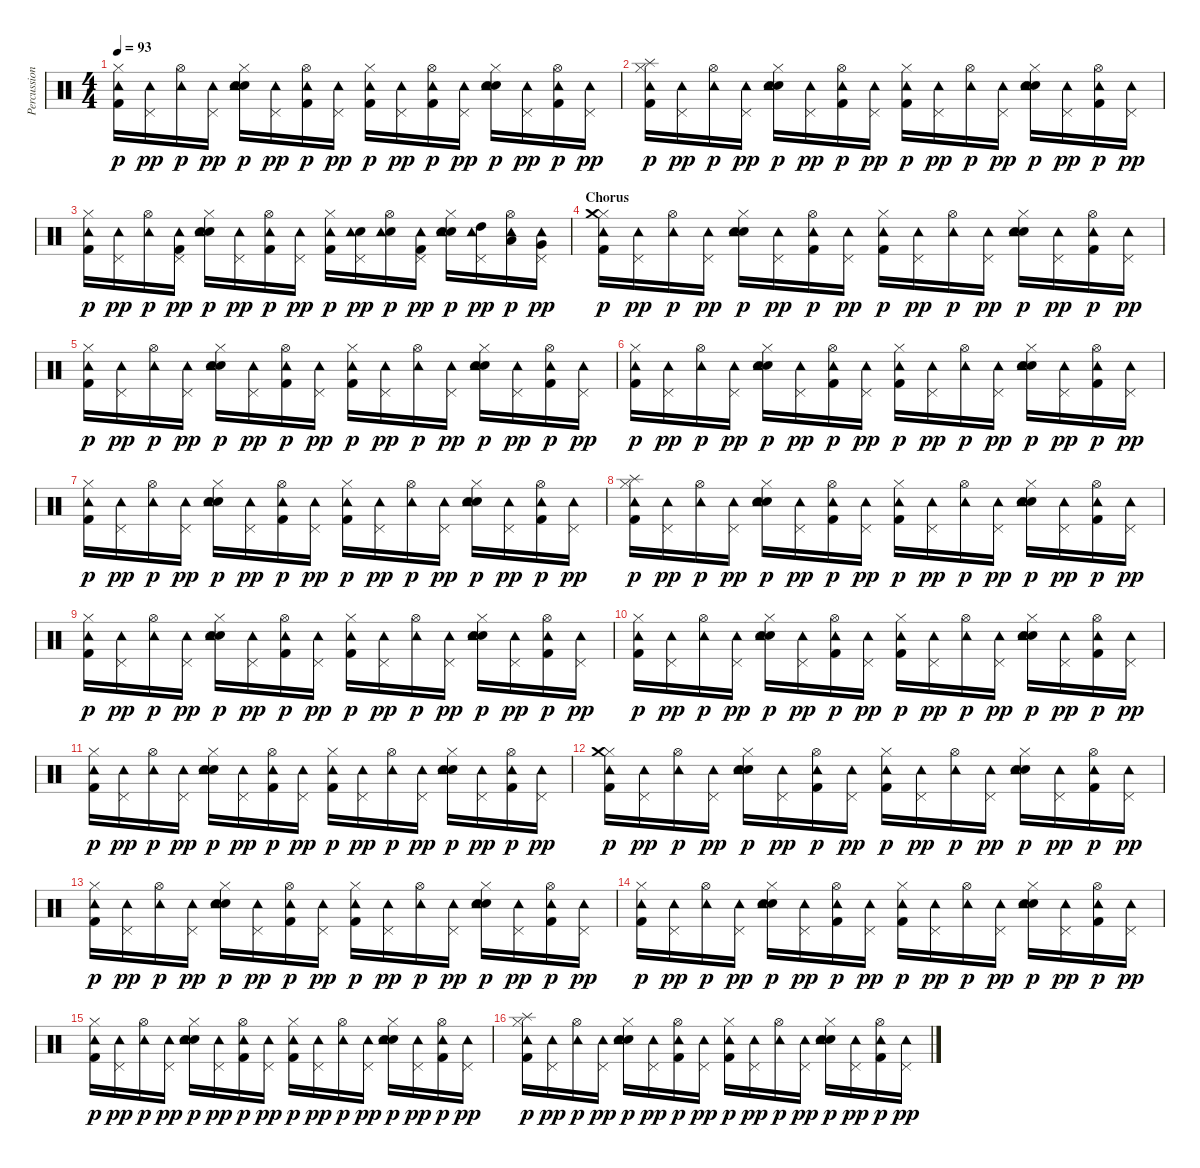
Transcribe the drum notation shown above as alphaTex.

\track ("Percussions" "Percussion") {instrument percussion}
\staff {score}
\articulation defaults
\ts (4 4)
\tempo 93
\clef neutral
\ks c
("Hi-Hat (closed)" "Kick (hit) 2" "Tambourine (hit)").16{dy p} ("Pedal Hi-Hat (hit)" "Tambourine (hit)").16{dy pp} ("Hi-Hat (open)" "Tambourine (hit)").16{dy p} ("Pedal Hi-Hat (hit)" "Tambourine (hit)").16{dy pp} ("Hi-Hat (closed)" "Electric Snare (hit)" "Hand Clap (hit)" "Tambourine (hit)").16{dy p} ("Pedal Hi-Hat (hit)" "Tambourine (hit)").16{dy pp} ("Hi-Hat (open)" "Kick (hit) 2" "Tambourine (hit)").16{dy p} ("Pedal Hi-Hat (hit)" "Tambourine (hit)").16{dy pp} ("Hi-Hat (closed)" "Kick (hit) 2" "Tambourine (hit)").16{dy p} ("Pedal Hi-Hat (hit)" "Tambourine (hit)").16{dy pp} ("Hi-Hat (open)" "Kick (hit) 2" "Tambourine (hit)").16{dy p} ("Pedal Hi-Hat (hit)" "Tambourine (hit)").16{dy pp} ("Hi-Hat (closed)" "Electric Snare (hit)" "Hand Clap (hit)" "Tambourine (hit)").16{dy p} ("Pedal Hi-Hat (hit)" "Tambourine (hit)").16{dy pp} ("Hi-Hat (open)" "Kick (hit) 2" "Tambourine (hit)").16{dy p} ("Pedal Hi-Hat (hit)" "Tambourine (hit)").16{dy pp} |
("Hi-Hat (closed)" "Splash (hit)" "Kick (hit) 2" "Tambourine (hit)").16{dy p} ("Pedal Hi-Hat (hit)" "Tambourine (hit)").16{dy pp} ("Hi-Hat (open)" "Tambourine (hit)").16{dy p} ("Pedal Hi-Hat (hit)" "Tambourine (hit)").16{dy pp} ("Hi-Hat (closed)" "Electric Snare (hit)" "Hand Clap (hit)" "Tambourine (hit)").16{dy p} ("Pedal Hi-Hat (hit)" "Tambourine (hit)").16{dy pp} ("Hi-Hat (open)" "Kick (hit) 2" "Tambourine (hit)").16{dy p} ("Pedal Hi-Hat (hit)" "Tambourine (hit)").16{dy pp} ("Hi-Hat (closed)" "Kick (hit) 2" "Tambourine (hit)").16{dy p} ("Pedal Hi-Hat (hit)" "Tambourine (hit)").16{dy pp} ("Hi-Hat (open)" "Tambourine (hit)").16{dy p} ("Pedal Hi-Hat (hit)" "Tambourine (hit)").16{dy pp} ("Hi-Hat (closed)" "Electric Snare (hit)" "Hand Clap (hit)" "Tambourine (hit)").16{dy p} ("Pedal Hi-Hat (hit)" "Tambourine (hit)").16{dy pp} ("Hi-Hat (open)" "Kick (hit) 2" "Tambourine (hit)").16{dy p} ("Pedal Hi-Hat (hit)" "Tambourine (hit)").16{dy pp} |
("Hi-Hat (closed)" "Kick (hit) 2" "Tambourine (hit)").16{dy p} ("Pedal Hi-Hat (hit)" "Tambourine (hit)").16{dy pp} ("Hi-Hat (open)" "Tambourine (hit)").16{dy p} ("Pedal Hi-Hat (hit)" "Kick (hit) 2" "Tambourine (hit)").16{dy pp} ("Hi-Hat (closed)" "Electric Snare (hit)" "Hand Clap (hit)" "Tambourine (hit)").16{dy p} ("Pedal Hi-Hat (hit)" "Tambourine (hit)").16{dy pp} ("Hi-Hat (open)" "Kick (hit) 2" "Tambourine (hit)").16{dy p} ("Pedal Hi-Hat (hit)" "Tambourine (hit)").16{dy pp} ("Hi-Hat (closed)" "Kick (hit) 2" "Tambourine (hit)").16{dy p} ("Pedal Hi-Hat (hit)" "Electric Snare (hit)" "Tambourine (hit)").16{dy pp} ("Hi-Hat (open)" "Electric Snare (hit)" "Tambourine (hit)").16{dy p} ("Pedal Hi-Hat (hit)" "Kick (hit) 2" "Tambourine (hit)").16{dy pp} ("Hi-Hat (closed)" "Electric Snare (hit)" "Hand Clap (hit)" "Tambourine (hit)").16{dy p} ("Pedal Hi-Hat (hit)" "High Tom (hit)" "Tambourine (hit)").16{dy pp} ("Hi-Hat (open)" "Low Tom (hit)" "Tambourine (hit)").16{dy p} ("Pedal Hi-Hat (hit)" "Very Low Tom (hit)" "Tambourine (hit)").16{dy pp} |
\section ("" "Chorus")
("Hi-Hat (closed)" "Crash medium (hit)" "Kick (hit) 2" "Tambourine (hit)").16{dy p} ("Pedal Hi-Hat (hit)" "Tambourine (hit)").16{dy pp} ("Hi-Hat (open)" "Tambourine (hit)").16{dy p} ("Pedal Hi-Hat (hit)" "Tambourine (hit)").16{dy pp} ("Hi-Hat (closed)" "Electric Snare (hit)" "Hand Clap (hit)" "Tambourine (hit)").16{dy p} ("Pedal Hi-Hat (hit)" "Tambourine (hit)").16{dy pp} ("Hi-Hat (open)" "Kick (hit) 2" "Tambourine (hit)").16{dy p} ("Pedal Hi-Hat (hit)" "Tambourine (hit)").16{dy pp} ("Hi-Hat (closed)" "Kick (hit) 2" "Tambourine (hit)").16{dy p} ("Pedal Hi-Hat (hit)" "Tambourine (hit)").16{dy pp} ("Hi-Hat (open)" "Tambourine (hit)").16{dy p} ("Pedal Hi-Hat (hit)" "Tambourine (hit)").16{dy pp} ("Hi-Hat (closed)" "Electric Snare (hit)" "Hand Clap (hit)" "Tambourine (hit)").16{dy p} ("Pedal Hi-Hat (hit)" "Tambourine (hit)").16{dy pp} ("Hi-Hat (open)" "Kick (hit) 2" "Tambourine (hit)").16{dy p} ("Pedal Hi-Hat (hit)" "Tambourine (hit)").16{dy pp} |
("Hi-Hat (closed)" "Kick (hit) 2" "Tambourine (hit)").16{dy p} ("Pedal Hi-Hat (hit)" "Tambourine (hit)").16{dy pp} ("Hi-Hat (open)" "Tambourine (hit)").16{dy p} ("Pedal Hi-Hat (hit)" "Tambourine (hit)").16{dy pp} ("Hi-Hat (closed)" "Electric Snare (hit)" "Hand Clap (hit)" "Tambourine (hit)").16{dy p} ("Pedal Hi-Hat (hit)" "Tambourine (hit)").16{dy pp} ("Hi-Hat (open)" "Kick (hit) 2" "Tambourine (hit)").16{dy p} ("Pedal Hi-Hat (hit)" "Tambourine (hit)").16{dy pp} ("Hi-Hat (closed)" "Kick (hit) 2" "Tambourine (hit)").16{dy p} ("Pedal Hi-Hat (hit)" "Tambourine (hit)").16{dy pp} ("Hi-Hat (open)" "Tambourine (hit)").16{dy p} ("Pedal Hi-Hat (hit)" "Tambourine (hit)").16{dy pp} ("Hi-Hat (closed)" "Electric Snare (hit)" "Hand Clap (hit)" "Tambourine (hit)").16{dy p} ("Pedal Hi-Hat (hit)" "Tambourine (hit)").16{dy pp} ("Hi-Hat (open)" "Kick (hit) 2" "Tambourine (hit)").16{dy p} ("Pedal Hi-Hat (hit)" "Tambourine (hit)").16{dy pp} |
("Hi-Hat (closed)" "Kick (hit) 2" "Tambourine (hit)").16{dy p} ("Pedal Hi-Hat (hit)" "Tambourine (hit)").16{dy pp} ("Hi-Hat (open)" "Tambourine (hit)").16{dy p} ("Pedal Hi-Hat (hit)" "Tambourine (hit)").16{dy pp} ("Hi-Hat (closed)" "Electric Snare (hit)" "Hand Clap (hit)" "Tambourine (hit)").16{dy p} ("Pedal Hi-Hat (hit)" "Tambourine (hit)").16{dy pp} ("Hi-Hat (open)" "Kick (hit) 2" "Tambourine (hit)").16{dy p} ("Pedal Hi-Hat (hit)" "Tambourine (hit)").16{dy pp} ("Hi-Hat (closed)" "Kick (hit) 2" "Tambourine (hit)").16{dy p} ("Pedal Hi-Hat (hit)" "Tambourine (hit)").16{dy pp} ("Hi-Hat (open)" "Tambourine (hit)").16{dy p} ("Pedal Hi-Hat (hit)" "Tambourine (hit)").16{dy pp} ("Hi-Hat (closed)" "Electric Snare (hit)" "Hand Clap (hit)" "Tambourine (hit)").16{dy p} ("Pedal Hi-Hat (hit)" "Tambourine (hit)").16{dy pp} ("Hi-Hat (open)" "Kick (hit) 2" "Tambourine (hit)").16{dy p} ("Pedal Hi-Hat (hit)" "Tambourine (hit)").16{dy pp} |
("Hi-Hat (closed)" "Kick (hit) 2" "Tambourine (hit)").16{dy p} ("Pedal Hi-Hat (hit)" "Tambourine (hit)").16{dy pp} ("Hi-Hat (open)" "Tambourine (hit)").16{dy p} ("Pedal Hi-Hat (hit)" "Tambourine (hit)").16{dy pp} ("Hi-Hat (closed)" "Electric Snare (hit)" "Hand Clap (hit)" "Tambourine (hit)").16{dy p} ("Pedal Hi-Hat (hit)" "Tambourine (hit)").16{dy pp} ("Hi-Hat (open)" "Kick (hit) 2" "Tambourine (hit)").16{dy p} ("Pedal Hi-Hat (hit)" "Tambourine (hit)").16{dy pp} ("Hi-Hat (closed)" "Kick (hit) 2" "Tambourine (hit)").16{dy p} ("Pedal Hi-Hat (hit)" "Tambourine (hit)").16{dy pp} ("Hi-Hat (open)" "Tambourine (hit)").16{dy p} ("Pedal Hi-Hat (hit)" "Tambourine (hit)").16{dy pp} ("Hi-Hat (closed)" "Electric Snare (hit)" "Hand Clap (hit)" "Tambourine (hit)").16{dy p} ("Pedal Hi-Hat (hit)" "Tambourine (hit)").16{dy pp} ("Hi-Hat (open)" "Kick (hit) 2" "Tambourine (hit)").16{dy p} ("Pedal Hi-Hat (hit)" "Tambourine (hit)").16{dy pp} |
("Hi-Hat (closed)" "Splash (hit)" "Kick (hit) 2" "Tambourine (hit)").16{dy p} ("Pedal Hi-Hat (hit)" "Tambourine (hit)").16{dy pp} ("Hi-Hat (open)" "Tambourine (hit)").16{dy p} ("Pedal Hi-Hat (hit)" "Tambourine (hit)").16{dy pp} ("Hi-Hat (closed)" "Electric Snare (hit)" "Hand Clap (hit)" "Tambourine (hit)").16{dy p} ("Pedal Hi-Hat (hit)" "Tambourine (hit)").16{dy pp} ("Hi-Hat (open)" "Kick (hit) 2" "Tambourine (hit)").16{dy p} ("Pedal Hi-Hat (hit)" "Tambourine (hit)").16{dy pp} ("Hi-Hat (closed)" "Kick (hit) 2" "Tambourine (hit)").16{dy p} ("Pedal Hi-Hat (hit)" "Tambourine (hit)").16{dy pp} ("Hi-Hat (open)" "Tambourine (hit)").16{dy p} ("Pedal Hi-Hat (hit)" "Tambourine (hit)").16{dy pp} ("Hi-Hat (closed)" "Electric Snare (hit)" "Hand Clap (hit)" "Tambourine (hit)").16{dy p} ("Pedal Hi-Hat (hit)" "Tambourine (hit)").16{dy pp} ("Hi-Hat (open)" "Kick (hit) 2" "Tambourine (hit)").16{dy p} ("Pedal Hi-Hat (hit)" "Tambourine (hit)").16{dy pp} |
("Hi-Hat (closed)" "Kick (hit) 2" "Tambourine (hit)").16{dy p} ("Pedal Hi-Hat (hit)" "Tambourine (hit)").16{dy pp} ("Hi-Hat (open)" "Tambourine (hit)").16{dy p} ("Pedal Hi-Hat (hit)" "Tambourine (hit)").16{dy pp} ("Hi-Hat (closed)" "Electric Snare (hit)" "Hand Clap (hit)" "Tambourine (hit)").16{dy p} ("Pedal Hi-Hat (hit)" "Tambourine (hit)").16{dy pp} ("Hi-Hat (open)" "Kick (hit) 2" "Tambourine (hit)").16{dy p} ("Pedal Hi-Hat (hit)" "Tambourine (hit)").16{dy pp} ("Hi-Hat (closed)" "Kick (hit) 2" "Tambourine (hit)").16{dy p} ("Pedal Hi-Hat (hit)" "Tambourine (hit)").16{dy pp} ("Hi-Hat (open)" "Tambourine (hit)").16{dy p} ("Pedal Hi-Hat (hit)" "Tambourine (hit)").16{dy pp} ("Hi-Hat (closed)" "Electric Snare (hit)" "Hand Clap (hit)" "Tambourine (hit)").16{dy p} ("Pedal Hi-Hat (hit)" "Tambourine (hit)").16{dy pp} ("Hi-Hat (open)" "Kick (hit) 2" "Tambourine (hit)").16{dy p} ("Pedal Hi-Hat (hit)" "Tambourine (hit)").16{dy pp} |
("Hi-Hat (closed)" "Kick (hit) 2" "Tambourine (hit)").16{dy p} ("Pedal Hi-Hat (hit)" "Tambourine (hit)").16{dy pp} ("Hi-Hat (open)" "Tambourine (hit)").16{dy p} ("Pedal Hi-Hat (hit)" "Tambourine (hit)").16{dy pp} ("Hi-Hat (closed)" "Electric Snare (hit)" "Hand Clap (hit)" "Tambourine (hit)").16{dy p} ("Pedal Hi-Hat (hit)" "Tambourine (hit)").16{dy pp} ("Hi-Hat (open)" "Kick (hit) 2" "Tambourine (hit)").16{dy p} ("Pedal Hi-Hat (hit)" "Tambourine (hit)").16{dy pp} ("Hi-Hat (closed)" "Kick (hit) 2" "Tambourine (hit)").16{dy p} ("Pedal Hi-Hat (hit)" "Tambourine (hit)").16{dy pp} ("Hi-Hat (open)" "Tambourine (hit)").16{dy p} ("Pedal Hi-Hat (hit)" "Tambourine (hit)").16{dy pp} ("Hi-Hat (closed)" "Electric Snare (hit)" "Hand Clap (hit)" "Tambourine (hit)").16{dy p} ("Pedal Hi-Hat (hit)" "Tambourine (hit)").16{dy pp} ("Hi-Hat (open)" "Kick (hit) 2" "Tambourine (hit)").16{dy p} ("Pedal Hi-Hat (hit)" "Tambourine (hit)").16{dy pp} |
("Hi-Hat (closed)" "Kick (hit) 2" "Tambourine (hit)").16{dy p} ("Pedal Hi-Hat (hit)" "Tambourine (hit)").16{dy pp} ("Hi-Hat (open)" "Tambourine (hit)").16{dy p} ("Pedal Hi-Hat (hit)" "Tambourine (hit)").16{dy pp} ("Hi-Hat (closed)" "Electric Snare (hit)" "Hand Clap (hit)" "Tambourine (hit)").16{dy p} ("Pedal Hi-Hat (hit)" "Tambourine (hit)").16{dy pp} ("Hi-Hat (open)" "Kick (hit) 2" "Tambourine (hit)").16{dy p} ("Pedal Hi-Hat (hit)" "Tambourine (hit)").16{dy pp} ("Hi-Hat (closed)" "Kick (hit) 2" "Tambourine (hit)").16{dy p} ("Pedal Hi-Hat (hit)" "Tambourine (hit)").16{dy pp} ("Hi-Hat (open)" "Tambourine (hit)").16{dy p} ("Pedal Hi-Hat (hit)" "Tambourine (hit)").16{dy pp} ("Hi-Hat (closed)" "Electric Snare (hit)" "Hand Clap (hit)" "Tambourine (hit)").16{dy p} ("Pedal Hi-Hat (hit)" "Tambourine (hit)").16{dy pp} ("Hi-Hat (open)" "Kick (hit) 2" "Tambourine (hit)").16{dy p} ("Pedal Hi-Hat (hit)" "Tambourine (hit)").16{dy pp} |
("Hi-Hat (closed)" "Crash medium (hit)" "Kick (hit) 2" "Tambourine (hit)").16{dy p} ("Pedal Hi-Hat (hit)" "Tambourine (hit)").16{dy pp} ("Hi-Hat (open)" "Tambourine (hit)").16{dy p} ("Pedal Hi-Hat (hit)" "Tambourine (hit)").16{dy pp} ("Hi-Hat (closed)" "Electric Snare (hit)" "Hand Clap (hit)" "Tambourine (hit)").16{dy p} ("Pedal Hi-Hat (hit)" "Tambourine (hit)").16{dy pp} ("Hi-Hat (open)" "Kick (hit) 2" "Tambourine (hit)").16{dy p} ("Pedal Hi-Hat (hit)" "Tambourine (hit)").16{dy pp} ("Hi-Hat (closed)" "Kick (hit) 2" "Tambourine (hit)").16{dy p} ("Pedal Hi-Hat (hit)" "Tambourine (hit)").16{dy pp} ("Hi-Hat (open)" "Tambourine (hit)").16{dy p} ("Pedal Hi-Hat (hit)" "Tambourine (hit)").16{dy pp} ("Hi-Hat (closed)" "Electric Snare (hit)" "Hand Clap (hit)" "Tambourine (hit)").16{dy p} ("Pedal Hi-Hat (hit)" "Tambourine (hit)").16{dy pp} ("Hi-Hat (open)" "Kick (hit) 2" "Tambourine (hit)").16{dy p} ("Pedal Hi-Hat (hit)" "Tambourine (hit)").16{dy pp} |
("Hi-Hat (closed)" "Kick (hit) 2" "Tambourine (hit)").16{dy p} ("Pedal Hi-Hat (hit)" "Tambourine (hit)").16{dy pp} ("Hi-Hat (open)" "Tambourine (hit)").16{dy p} ("Pedal Hi-Hat (hit)" "Tambourine (hit)").16{dy pp} ("Hi-Hat (closed)" "Electric Snare (hit)" "Hand Clap (hit)" "Tambourine (hit)").16{dy p} ("Pedal Hi-Hat (hit)" "Tambourine (hit)").16{dy pp} ("Hi-Hat (open)" "Kick (hit) 2" "Tambourine (hit)").16{dy p} ("Pedal Hi-Hat (hit)" "Tambourine (hit)").16{dy pp} ("Hi-Hat (closed)" "Kick (hit) 2" "Tambourine (hit)").16{dy p} ("Pedal Hi-Hat (hit)" "Tambourine (hit)").16{dy pp} ("Hi-Hat (open)" "Tambourine (hit)").16{dy p} ("Pedal Hi-Hat (hit)" "Tambourine (hit)").16{dy pp} ("Hi-Hat (closed)" "Electric Snare (hit)" "Hand Clap (hit)" "Tambourine (hit)").16{dy p} ("Pedal Hi-Hat (hit)" "Tambourine (hit)").16{dy pp} ("Hi-Hat (open)" "Kick (hit) 2" "Tambourine (hit)").16{dy p} ("Pedal Hi-Hat (hit)" "Tambourine (hit)").16{dy pp} |
("Hi-Hat (closed)" "Kick (hit) 2" "Tambourine (hit)").16{dy p} ("Pedal Hi-Hat (hit)" "Tambourine (hit)").16{dy pp} ("Hi-Hat (open)" "Tambourine (hit)").16{dy p} ("Pedal Hi-Hat (hit)" "Tambourine (hit)").16{dy pp} ("Hi-Hat (closed)" "Electric Snare (hit)" "Hand Clap (hit)" "Tambourine (hit)").16{dy p} ("Pedal Hi-Hat (hit)" "Tambourine (hit)").16{dy pp} ("Hi-Hat (open)" "Kick (hit) 2" "Tambourine (hit)").16{dy p} ("Pedal Hi-Hat (hit)" "Tambourine (hit)").16{dy pp} ("Hi-Hat (closed)" "Kick (hit) 2" "Tambourine (hit)").16{dy p} ("Pedal Hi-Hat (hit)" "Tambourine (hit)").16{dy pp} ("Hi-Hat (open)" "Tambourine (hit)").16{dy p} ("Pedal Hi-Hat (hit)" "Tambourine (hit)").16{dy pp} ("Hi-Hat (closed)" "Electric Snare (hit)" "Hand Clap (hit)" "Tambourine (hit)").16{dy p} ("Pedal Hi-Hat (hit)" "Tambourine (hit)").16{dy pp} ("Hi-Hat (open)" "Kick (hit) 2" "Tambourine (hit)").16{dy p} ("Pedal Hi-Hat (hit)" "Tambourine (hit)").16{dy pp} |
("Hi-Hat (closed)" "Kick (hit) 2" "Tambourine (hit)").16{dy p} ("Pedal Hi-Hat (hit)" "Tambourine (hit)").16{dy pp} ("Hi-Hat (open)" "Tambourine (hit)").16{dy p} ("Pedal Hi-Hat (hit)" "Tambourine (hit)").16{dy pp} ("Hi-Hat (closed)" "Electric Snare (hit)" "Hand Clap (hit)" "Tambourine (hit)").16{dy p} ("Pedal Hi-Hat (hit)" "Tambourine (hit)").16{dy pp} ("Hi-Hat (open)" "Kick (hit) 2" "Tambourine (hit)").16{dy p} ("Pedal Hi-Hat (hit)" "Tambourine (hit)").16{dy pp} ("Hi-Hat (closed)" "Kick (hit) 2" "Tambourine (hit)").16{dy p} ("Pedal Hi-Hat (hit)" "Tambourine (hit)").16{dy pp} ("Hi-Hat (open)" "Tambourine (hit)").16{dy p} ("Pedal Hi-Hat (hit)" "Tambourine (hit)").16{dy pp} ("Hi-Hat (closed)" "Electric Snare (hit)" "Hand Clap (hit)" "Tambourine (hit)").16{dy p} ("Pedal Hi-Hat (hit)" "Tambourine (hit)").16{dy pp} ("Hi-Hat (open)" "Kick (hit) 2" "Tambourine (hit)").16{dy p} ("Pedal Hi-Hat (hit)" "Tambourine (hit)").16{dy pp} |
("Hi-Hat (closed)" "Splash (hit)" "Kick (hit) 2" "Tambourine (hit)").16{dy p} ("Pedal Hi-Hat (hit)" "Tambourine (hit)").16{dy pp} ("Hi-Hat (open)" "Tambourine (hit)").16{dy p} ("Pedal Hi-Hat (hit)" "Tambourine (hit)").16{dy pp} ("Hi-Hat (closed)" "Electric Snare (hit)" "Hand Clap (hit)" "Tambourine (hit)").16{dy p} ("Pedal Hi-Hat (hit)" "Tambourine (hit)").16{dy pp} ("Hi-Hat (open)" "Kick (hit) 2" "Tambourine (hit)").16{dy p} ("Pedal Hi-Hat (hit)" "Tambourine (hit)").16{dy pp} ("Hi-Hat (closed)" "Kick (hit) 2" "Tambourine (hit)").16{dy p} ("Pedal Hi-Hat (hit)" "Tambourine (hit)").16{dy pp} ("Hi-Hat (open)" "Tambourine (hit)").16{dy p} ("Pedal Hi-Hat (hit)" "Tambourine (hit)").16{dy pp} ("Hi-Hat (closed)" "Electric Snare (hit)" "Hand Clap (hit)" "Tambourine (hit)").16{dy p} ("Pedal Hi-Hat (hit)" "Tambourine (hit)").16{dy pp} ("Hi-Hat (open)" "Kick (hit) 2" "Tambourine (hit)").16{dy p} ("Pedal Hi-Hat (hit)" "Tambourine (hit)").16{dy pp}
